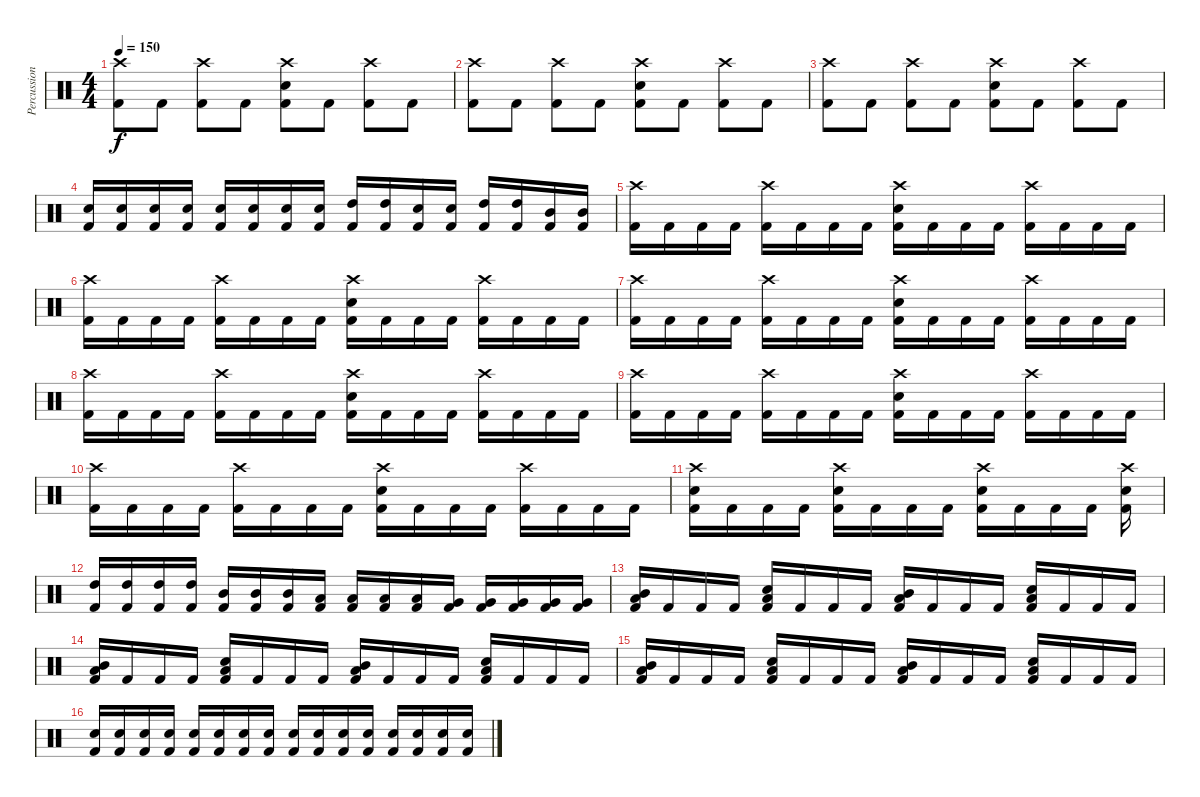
\track ("Percussion" "Percussion") {instrument percussion}
\staff {score}
\articulation defaults
\ts (4 4)
\tempo 150
\clef neutral
\ks c
("Crash high (hit)" "Kick (hit) 2").8{dy f} "Kick (hit) 2".8 ("Crash high (hit)" "Kick (hit) 2").8 "Kick (hit) 2".8 ("Crash high (hit)" "Snare (hit) 2" "Kick (hit) 2").8 "Kick (hit) 2".8 ("Crash high (hit)" "Kick (hit) 2").8 "Kick (hit) 2".8 |
("Crash high (hit)" "Kick (hit) 2").8 "Kick (hit) 2".8 ("Crash high (hit)" "Kick (hit) 2").8 "Kick (hit) 2".8 ("Crash high (hit)" "Snare (hit) 2" "Kick (hit) 2").8 "Kick (hit) 2".8 ("Crash high (hit)" "Kick (hit) 2").8 "Kick (hit) 2".8 |
("Crash high (hit)" "Kick (hit) 2").8 "Kick (hit) 2".8 ("Crash high (hit)" "Kick (hit) 2").8 "Kick (hit) 2".8 ("Crash high (hit)" "Snare (hit) 2" "Kick (hit) 2").8 "Kick (hit) 2".8 ("Crash high (hit)" "Kick (hit) 2").8 "Kick (hit) 2".8 |
("Snare (hit) 2" "Kick (hit) 2").16 ("Snare (hit) 2" "Kick (hit) 2").16 ("Snare (hit) 2" "Kick (hit) 2").16 ("Snare (hit) 2" "Kick (hit) 2").16 ("Snare (hit) 2" "Kick (hit) 2").16 ("Snare (hit) 2" "Kick (hit) 2").16 ("Snare (hit) 2" "Kick (hit) 2").16 ("Snare (hit) 2" "Kick (hit) 2").16 ("High Tom (hit)" "Kick (hit) 2").16 ("High Tom (hit)" "Kick (hit) 2").16 ("Snare (hit) 2" "Kick (hit) 2").16 ("Snare (hit) 2" "Kick (hit) 2").16 ("High Tom (hit)" "Kick (hit) 2").16 ("High Tom (hit)" "Kick (hit) 2").16 ("Mid Tom (hit)" "Kick (hit) 2").16 ("Mid Tom (hit)" "Kick (hit) 2").16 |
("Crash high (hit)" "Kick (hit) 2").16 "Kick (hit) 2".16 "Kick (hit) 2".16 "Kick (hit) 2".16 ("Crash high (hit)" "Kick (hit) 2").16 "Kick (hit) 2".16 "Kick (hit) 2".16 "Kick (hit) 2".16 ("Crash high (hit)" "Snare (hit) 2" "Kick (hit) 2").16 "Kick (hit) 2".16 "Kick (hit) 2".16 "Kick (hit) 2".16 ("Crash high (hit)" "Kick (hit) 2").16 "Kick (hit) 2".16 "Kick (hit) 2".16 "Kick (hit) 2".16 |
("Crash high (hit)" "Kick (hit) 2").16 "Kick (hit) 2".16 "Kick (hit) 2".16 "Kick (hit) 2".16 ("Crash high (hit)" "Kick (hit) 2").16 "Kick (hit) 2".16 "Kick (hit) 2".16 "Kick (hit) 2".16 ("Crash high (hit)" "Snare (hit) 2" "Kick (hit) 2").16 "Kick (hit) 2".16 "Kick (hit) 2".16 "Kick (hit) 2".16 ("Crash high (hit)" "Kick (hit) 2").16 "Kick (hit) 2".16 "Kick (hit) 2".16 "Kick (hit) 2".16 |
("Crash high (hit)" "Kick (hit) 2").16 "Kick (hit) 2".16 "Kick (hit) 2".16 "Kick (hit) 2".16 ("Crash high (hit)" "Kick (hit) 2").16 "Kick (hit) 2".16 "Kick (hit) 2".16 "Kick (hit) 2".16 ("Crash high (hit)" "Snare (hit) 2" "Kick (hit) 2").16 "Kick (hit) 2".16 "Kick (hit) 2".16 "Kick (hit) 2".16 ("Crash high (hit)" "Kick (hit) 2").16 "Kick (hit) 2".16 "Kick (hit) 2".16 "Kick (hit) 2".16 |
("Crash high (hit)" "Kick (hit) 2").16 "Kick (hit) 2".16 "Kick (hit) 2".16 "Kick (hit) 2".16 ("Crash high (hit)" "Kick (hit) 2").16 "Kick (hit) 2".16 "Kick (hit) 2".16 "Kick (hit) 2".16 ("Crash high (hit)" "Snare (hit) 2" "Kick (hit) 2").16 "Kick (hit) 2".16 "Kick (hit) 2".16 "Kick (hit) 2".16 ("Crash high (hit)" "Kick (hit) 2").16 "Kick (hit) 2".16 "Kick (hit) 2".16 "Kick (hit) 2".16 |
("Crash high (hit)" "Kick (hit) 2").16 "Kick (hit) 2".16 "Kick (hit) 2".16 "Kick (hit) 2".16 ("Crash high (hit)" "Kick (hit) 2").16 "Kick (hit) 2".16 "Kick (hit) 2".16 "Kick (hit) 2".16 ("Crash high (hit)" "Snare (hit) 2" "Kick (hit) 2").16 "Kick (hit) 2".16 "Kick (hit) 2".16 "Kick (hit) 2".16 ("Crash high (hit)" "Kick (hit) 2").16 "Kick (hit) 2".16 "Kick (hit) 2".16 "Kick (hit) 2".16 |
("Crash high (hit)" "Kick (hit) 2").16 "Kick (hit) 2".16 "Kick (hit) 2".16 "Kick (hit) 2".16 ("Crash high (hit)" "Kick (hit) 2").16 "Kick (hit) 2".16 "Kick (hit) 2".16 "Kick (hit) 2".16 ("Crash high (hit)" "Snare (hit) 2" "Kick (hit) 2").16 "Kick (hit) 2".16 "Kick (hit) 2".16 "Kick (hit) 2".16 ("Crash high (hit)" "Kick (hit) 2").16 "Kick (hit) 2".16 "Kick (hit) 2".16 "Kick (hit) 2".16 |
("Crash high (hit)" "Snare (hit) 2" "Kick (hit) 2").16 "Kick (hit) 2".16 "Kick (hit) 2".16 "Kick (hit) 2".16 ("Crash high (hit)" "Snare (hit) 2" "Kick (hit) 2").16 "Kick (hit) 2".16 "Kick (hit) 2".16 "Kick (hit) 2".16 ("Crash high (hit)" "Snare (hit) 2" "Kick (hit) 2").16 "Kick (hit) 2".16 "Kick (hit) 2".16 "Kick (hit) 2".16 ("Crash high (hit)" "Snare (hit) 2" "Kick (hit) 2").16 |
("High Tom (hit)" "Kick (hit) 2").16 ("High Tom (hit)" "Kick (hit) 2").16 ("High Tom (hit)" "Kick (hit) 2").16 ("High Tom (hit)" "Kick (hit) 2").16 ("Mid Tom (hit)" "Kick (hit) 2").16 ("Mid Tom (hit)" "Kick (hit) 2").16 ("Mid Tom (hit)" "Kick (hit) 2").16 ("Low Tom (hit)" "Kick (hit) 2").16 ("Low Tom (hit)" "Kick (hit) 2").16 ("Low Tom (hit)" "Kick (hit) 2").16 ("Low Tom (hit)" "Kick (hit) 2").16 ("Very Low Tom (hit)" "Kick (hit) 2").16 ("Very Low Tom (hit)" "Kick (hit) 2").16 ("Very Low Tom (hit)" "Kick (hit) 2").16 ("Very Low Tom (hit)" "Kick (hit) 2").16 ("Very Low Tom (hit)" "Kick (hit) 2").16 |
("Low Tom (hit)" "Mid Tom (hit)" "Kick (hit) 2").16 "Kick (hit) 2".16 "Kick (hit) 2".16 "Kick (hit) 2".16 ("Low Tom (hit)" "Snare (hit) 2" "Kick (hit) 2").16 "Kick (hit) 2".16 "Kick (hit) 2".16 "Kick (hit) 2".16 ("Mid Tom (hit)" "Low Tom (hit)" "Kick (hit) 2").16 "Kick (hit) 2".16 "Kick (hit) 2".16 "Kick (hit) 2".16 ("Low Tom (hit)" "Snare (hit) 2" "Kick (hit) 2").16 "Kick (hit) 2".16 "Kick (hit) 2".16 "Kick (hit) 2".16 |
("Mid Tom (hit)" "Low Tom (hit)" "Kick (hit) 2").16 "Kick (hit) 2".16 "Kick (hit) 2".16 "Kick (hit) 2".16 ("Low Tom (hit)" "Snare (hit) 2" "Kick (hit) 2").16 "Kick (hit) 2".16 "Kick (hit) 2".16 "Kick (hit) 2".16 ("Low Tom (hit)" "Mid Tom (hit)" "Kick (hit) 2").16 "Kick (hit) 2".16 "Kick (hit) 2".16 "Kick (hit) 2".16 ("Low Tom (hit)" "Snare (hit) 2" "Kick (hit) 2").16 "Kick (hit) 2".16 "Kick (hit) 2".16 "Kick (hit) 2".16 |
("Low Tom (hit)" "Mid Tom (hit)" "Kick (hit) 2").16 "Kick (hit) 2".16 "Kick (hit) 2".16 "Kick (hit) 2".16 ("Low Tom (hit)" "Snare (hit) 2" "Kick (hit) 2").16 "Kick (hit) 2".16 "Kick (hit) 2".16 "Kick (hit) 2".16 ("Low Tom (hit)" "Mid Tom (hit)" "Kick (hit) 2").16 "Kick (hit) 2".16 "Kick (hit) 2".16 "Kick (hit) 2".16 ("Low Tom (hit)" "Snare (hit) 2" "Kick (hit) 2").16 "Kick (hit) 2".16 "Kick (hit) 2".16 "Kick (hit) 2".16 |
("Snare (hit) 2" "Kick (hit) 2").16 ("Snare (hit) 2" "Kick (hit) 2").16 ("Snare (hit) 2" "Kick (hit) 2").16 ("Snare (hit) 2" "Kick (hit) 2").16 ("Snare (hit) 2" "Kick (hit) 2").16 ("Snare (hit) 2" "Kick (hit) 2").16 ("Snare (hit) 2" "Kick (hit) 2").16 ("Snare (hit) 2" "Kick (hit) 2").16 ("Snare (hit) 2" "Kick (hit) 2").16 ("Snare (hit) 2" "Kick (hit) 2").16 ("Snare (hit) 2" "Kick (hit) 2").16 ("Snare (hit) 2" "Kick (hit) 2").16 ("Snare (hit) 2" "Kick (hit) 2").16 ("Snare (hit) 2" "Kick (hit) 2").16 ("Snare (hit) 2" "Kick (hit) 2").16 ("Snare (hit) 2" "Kick (hit) 2").16
